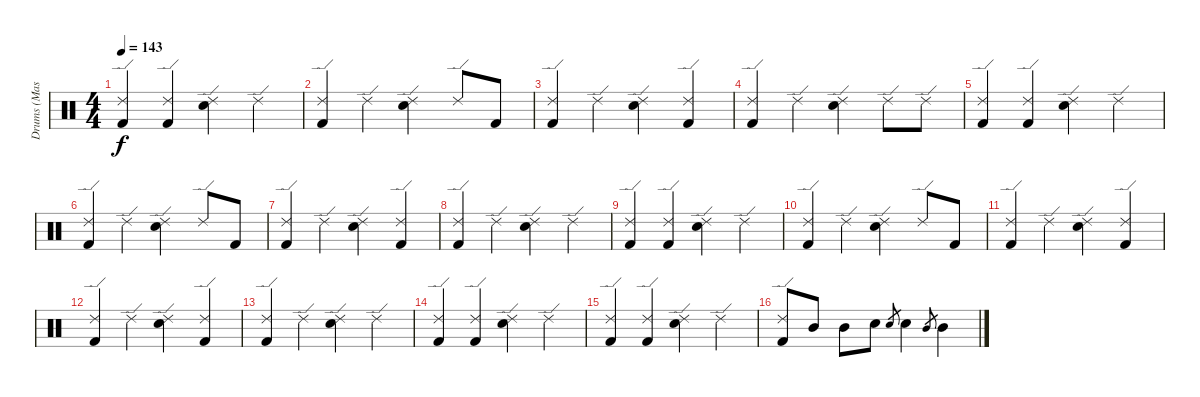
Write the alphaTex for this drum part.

\track ("Drums (Mason)" "Drums (Mas") {instrument percussion}
\staff {score}
\articulation defaults
\ts (4 4)
\tempo 143
\clef neutral
\ks c
("Ride (edge) 2" "Kick (hit) 2").4{dy f} ("Ride (edge) 2" "Kick (hit) 2").4 ("Ride (edge) 2" "Electric Snare (hit)").4 "Ride (edge) 2".4 |
("Ride (edge) 2" "Kick (hit) 2").4 "Ride (edge) 2".4 ("Ride (edge) 2" "Electric Snare (hit)").4 "Ride (edge) 2".8 "Kick (hit) 2".8 |
("Ride (edge) 2" "Kick (hit) 2").4 "Ride (edge) 2".4 ("Ride (edge) 2" "Electric Snare (hit)").4 ("Ride (edge) 2" "Kick (hit) 2").4 |
("Ride (edge) 2" "Kick (hit) 2").4 "Ride (edge) 2".4 ("Ride (edge) 2" "Electric Snare (hit)").4 "Ride (edge) 2".8 "Ride (edge) 2".8 |
("Ride (edge) 2" "Kick (hit) 2").4 ("Ride (edge) 2" "Kick (hit) 2").4 ("Ride (edge) 2" "Electric Snare (hit)").4 "Ride (edge) 2".4 |
("Ride (edge) 2" "Kick (hit) 2").4 "Ride (edge) 2".4 ("Ride (edge) 2" "Electric Snare (hit)").4 "Ride (edge) 2".8 "Kick (hit) 2".8 |
("Ride (edge) 2" "Kick (hit) 2").4 "Ride (edge) 2".4 ("Ride (edge) 2" "Electric Snare (hit)").4 ("Ride (edge) 2" "Kick (hit) 2").4 |
("Ride (edge) 2" "Kick (hit) 2").4 "Ride (edge) 2".4 ("Ride (edge) 2" "Electric Snare (hit)").4 "Ride (edge) 2".4 |
("Ride (edge) 2" "Kick (hit) 2").4 ("Ride (edge) 2" "Kick (hit) 2").4 ("Ride (edge) 2" "Electric Snare (hit)").4 "Ride (edge) 2".4 |
("Ride (edge) 2" "Kick (hit) 2").4 "Ride (edge) 2".4 ("Ride (edge) 2" "Electric Snare (hit)").4 "Ride (edge) 2".8 "Kick (hit) 2".8 |
("Ride (edge) 2" "Kick (hit) 2").4 "Ride (edge) 2".4 ("Ride (edge) 2" "Electric Snare (hit)").4 ("Ride (edge) 2" "Kick (hit) 2").4 |
("Ride (edge) 2" "Kick (hit) 2").4 "Ride (edge) 2".4 ("Ride (edge) 2" "Electric Snare (hit)").4 ("Ride (edge) 2" "Kick (hit) 2").4 |
("Ride (edge) 2" "Kick (hit) 2").4 "Ride (edge) 2".4 ("Ride (edge) 2" "Electric Snare (hit)").4 "Ride (edge) 2".4 |
("Ride (edge) 2" "Kick (hit) 2").4 ("Ride (edge) 2" "Kick (hit) 2").4 ("Ride (edge) 2" "Electric Snare (hit)").4 "Ride (edge) 2".4 |
("Ride (edge) 2" "Kick (hit) 2").4 ("Ride (edge) 2" "Kick (hit) 2").4 ("Ride (edge) 2" "Electric Snare (hit)").4 "Ride (edge) 2".4 |
("Ride (edge) 2" "Kick (hit) 2").8 "Mid Tom (hit)".8 "Mid Tom (hit)".8 "Electric Snare (hit)".8 "Electric Snare (hit)".8{gr} "Electric Snare (hit)".4 "Mid Tom (hit)".8{gr} "Mid Tom (hit)".4
